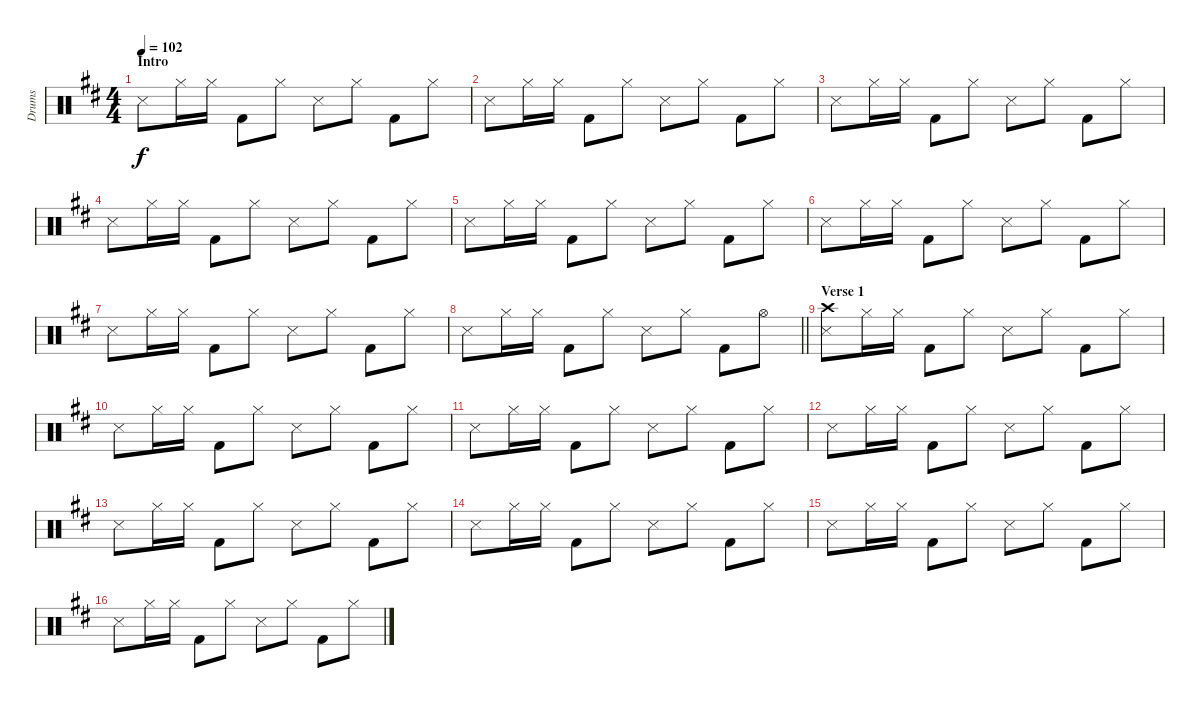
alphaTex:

\track ("Drums" "Drums") {instrument percussion}
\staff {score}
\articulation defaults
\ts (4 4)
\section ("" "Intro")
\tempo 102
\clef neutral
\ks d "Snare (side stick) 3".8{dy f} "Hi-Hat (closed)".16 "Hi-Hat (closed)".16 "Kick (hit) 2".8 "Hi-Hat (closed)".8 "Snare (side stick) 3".8 "Hi-Hat (closed)".8 "Kick (hit) 2".8 "Hi-Hat (closed)".8
|
"Snare (side stick) 3".8 "Hi-Hat (closed)".16 "Hi-Hat (closed)".16 "Kick (hit) 2".8 "Hi-Hat (closed)".8 "Snare (side stick) 3".8 "Hi-Hat (closed)".8 "Kick (hit) 2".8 "Hi-Hat (closed)".8 |
"Snare (side stick) 3".8 "Hi-Hat (closed)".16 "Hi-Hat (closed)".16 "Kick (hit) 2".8 "Hi-Hat (closed)".8 "Snare (side stick) 3".8 "Hi-Hat (closed)".8 "Kick (hit) 2".8 "Hi-Hat (closed)".8 |
"Snare (side stick) 3".8 "Hi-Hat (closed)".16 "Hi-Hat (closed)".16 "Kick (hit) 2".8 "Hi-Hat (closed)".8 "Snare (side stick) 3".8 "Hi-Hat (closed)".8 "Kick (hit) 2".8 "Hi-Hat (closed)".8 |
"Snare (side stick) 3".8 "Hi-Hat (closed)".16 "Hi-Hat (closed)".16 "Kick (hit) 2".8 "Hi-Hat (closed)".8 "Snare (side stick) 3".8 "Hi-Hat (closed)".8 "Kick (hit) 2".8 "Hi-Hat (closed)".8 |
"Snare (side stick) 3".8 "Hi-Hat (closed)".16 "Hi-Hat (closed)".16 "Kick (hit) 2".8 "Hi-Hat (closed)".8 "Snare (side stick) 3".8 "Hi-Hat (closed)".8 "Kick (hit) 2".8 "Hi-Hat (closed)".8 |
"Snare (side stick) 3".8 "Hi-Hat (closed)".16 "Hi-Hat (closed)".16 "Kick (hit) 2".8 "Hi-Hat (closed)".8 "Snare (side stick) 3".8 "Hi-Hat (closed)".8 "Kick (hit) 2".8 "Hi-Hat (closed)".8 |
\barLineRight lightlight "Snare (side stick) 3".8 "Hi-Hat (closed)".16 "Hi-Hat (closed)".16 "Kick (hit) 2".8 "Hi-Hat (closed)".8 "Snare (side stick) 3".8 "Hi-Hat (closed)".8 "Kick (hit) 2".8 "Hi-Hat (open)".8
|
\section ("" "Verse 1")
("Crash high (hit)" "Snare (side stick) 3").8 "Hi-Hat (closed)".16 "Hi-Hat (closed)".16 "Kick (hit) 2".8 "Hi-Hat (closed)".8 "Snare (side stick) 3".8 "Hi-Hat (closed)".8 "Kick (hit) 2".8 "Hi-Hat (closed)".8 |
"Snare (side stick) 3".8 "Hi-Hat (closed)".16 "Hi-Hat (closed)".16 "Kick (hit) 2".8 "Hi-Hat (closed)".8 "Snare (side stick) 3".8 "Hi-Hat (closed)".8 "Kick (hit) 2".8 "Hi-Hat (closed)".8 |
"Snare (side stick) 3".8 "Hi-Hat (closed)".16 "Hi-Hat (closed)".16 "Kick (hit) 2".8 "Hi-Hat (closed)".8 "Snare (side stick) 3".8 "Hi-Hat (closed)".8 "Kick (hit) 2".8 "Hi-Hat (closed)".8 |
"Snare (side stick) 3".8 "Hi-Hat (closed)".16 "Hi-Hat (closed)".16 "Kick (hit) 2".8 "Hi-Hat (closed)".8 "Snare (side stick) 3".8 "Hi-Hat (closed)".8 "Kick (hit) 2".8 "Hi-Hat (closed)".8 |
"Snare (side stick) 3".8 "Hi-Hat (closed)".16 "Hi-Hat (closed)".16 "Kick (hit) 2".8 "Hi-Hat (closed)".8 "Snare (side stick) 3".8 "Hi-Hat (closed)".8 "Kick (hit) 2".8 "Hi-Hat (closed)".8 |
"Snare (side stick) 3".8 "Hi-Hat (closed)".16 "Hi-Hat (closed)".16 "Kick (hit) 2".8 "Hi-Hat (closed)".8 "Snare (side stick) 3".8 "Hi-Hat (closed)".8 "Kick (hit) 2".8 "Hi-Hat (closed)".8 |
"Snare (side stick) 3".8 "Hi-Hat (closed)".16 "Hi-Hat (closed)".16 "Kick (hit) 2".8 "Hi-Hat (closed)".8 "Snare (side stick) 3".8 "Hi-Hat (closed)".8 "Kick (hit) 2".8 "Hi-Hat (closed)".8 |
"Snare (side stick) 3".8 "Hi-Hat (closed)".16 "Hi-Hat (closed)".16 "Kick (hit) 2".8 "Hi-Hat (closed)".8 "Snare (side stick) 3".8 "Hi-Hat (closed)".8 "Kick (hit) 2".8 "Hi-Hat (closed)".8
